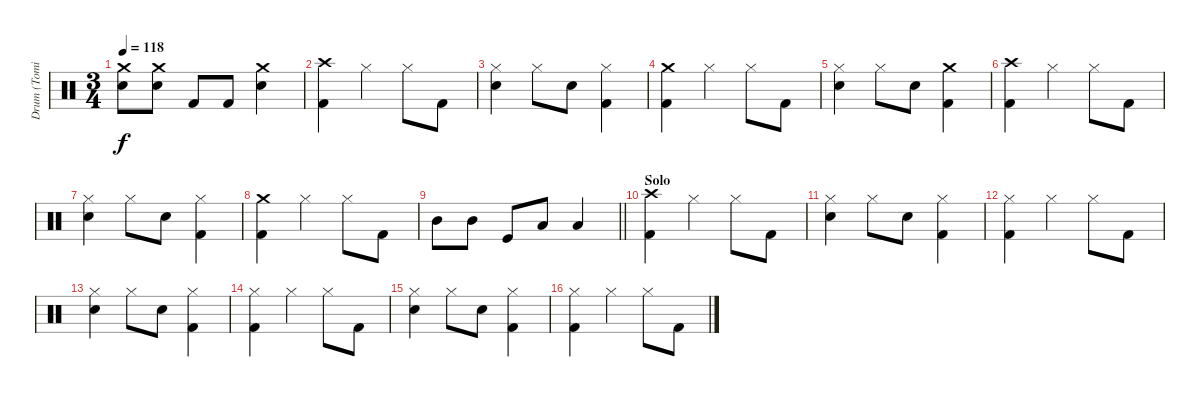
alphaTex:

\track ("Drum (Tomi)" "Drum (Tomi") {instrument percussion}
\staff {score}
\articulation defaults
\ts (3 4)
\tempo 118
\clef neutral
\ks c
("Crash medium (hit)" "Electric Snare (hit)").8{dy f} ("Crash medium (hit)" "Electric Snare (hit)").8 "Kick (hit) 2".8 "Kick (hit) 2".8 ("Crash medium (hit)" "Electric Snare (hit)").4 |
("Crash high (hit)" "Kick (hit) 2").4 "Hi-Hat (closed)".4 "Hi-Hat (closed)".8 "Kick (hit) 2".8 |
("Hi-Hat (closed)" "Electric Snare (hit)").4 "Hi-Hat (closed)".8 "Electric Snare (hit)".8 ("Hi-Hat (closed)" "Kick (hit) 2").4 |
("Crash medium (hit)" "Kick (hit) 2").4 "Hi-Hat (closed)".4 "Hi-Hat (closed)".8 "Kick (hit) 2".8 |
("Hi-Hat (closed)" "Electric Snare (hit)").4 "Hi-Hat (closed)".8 "Electric Snare (hit)".8 ("Crash medium (hit)" "Kick (hit) 2").4 |
("Crash high (hit)" "Kick (hit) 2").4 "Hi-Hat (closed)".4 "Hi-Hat (closed)".8 "Kick (hit) 2".8 |
("Hi-Hat (closed)" "Electric Snare (hit)").4 "Hi-Hat (closed)".8 "Electric Snare (hit)".8 ("Hi-Hat (closed)" "Kick (hit) 2").4 |
("Crash medium (hit)" "Kick (hit) 2").4 "Hi-Hat (closed)".4 "Hi-Hat (closed)".8 "Kick (hit) 2".8 |
\barLineRight lightlight "Mid Tom (hit)".8 "Mid Tom (hit)".8 "Kick (hit)".8 "Low Tom (hit)".8 "Low Tom (hit)".4
|
\section ("" "Solo")
("Crash high (hit)" "Kick (hit) 2").4 "Hi-Hat (closed)".4 "Hi-Hat (closed)".8 "Kick (hit) 2".8 |
("Hi-Hat (closed)" "Electric Snare (hit)").4 "Hi-Hat (closed)".8 "Electric Snare (hit)".8 ("Hi-Hat (closed)" "Kick (hit) 2").4 |
("Hi-Hat (closed)" "Kick (hit) 2").4 "Hi-Hat (closed)".4 "Hi-Hat (closed)".8 "Kick (hit) 2".8 |
("Hi-Hat (closed)" "Electric Snare (hit)").4 "Hi-Hat (closed)".8 "Electric Snare (hit)".8 ("Hi-Hat (closed)" "Kick (hit) 2").4 |
("Hi-Hat (closed)" "Kick (hit) 2").4 "Hi-Hat (closed)".4 "Hi-Hat (closed)".8 "Kick (hit) 2".8 |
("Hi-Hat (closed)" "Electric Snare (hit)").4 "Hi-Hat (closed)".8 "Electric Snare (hit)".8 ("Hi-Hat (closed)" "Kick (hit) 2").4 |
("Hi-Hat (closed)" "Kick (hit) 2").4 "Hi-Hat (closed)".4 "Hi-Hat (closed)".8 "Kick (hit) 2".8
